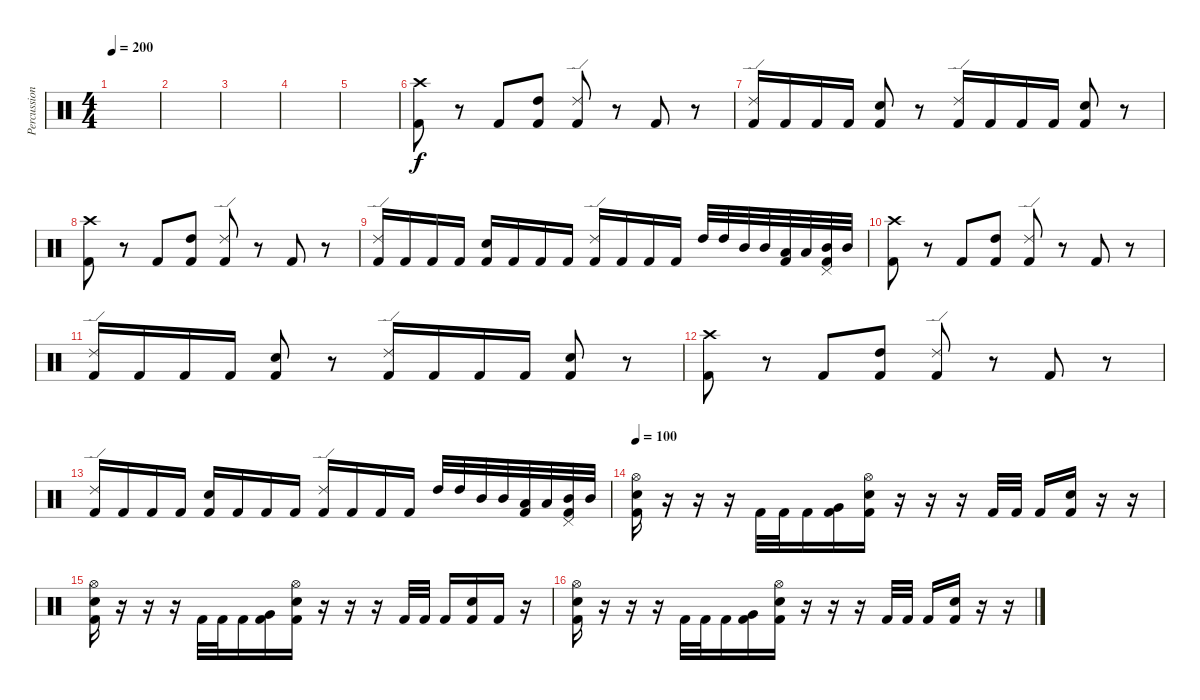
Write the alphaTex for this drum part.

\track ("Percussion" "Percussion") {instrument percussion}
\staff {score}
\articulation defaults
\ts (4 4)
\tempo 200
\clef neutral
\ks c
|
|
|
|
|
("Crash high (hit)" "Kick (hit) 2").8{dy f} r.8 "Kick (hit) 2".8 ("High Tom (hit)" "Kick (hit) 2").8 ("Ride (edge) 2" "Kick (hit) 2").8 r.8 "Kick (hit) 2".8 r.8 |
("Ride (edge) 2" "Kick (hit) 2").16 "Kick (hit) 2".16 "Kick (hit) 2".16 "Kick (hit) 2".16 ("Hand Clap (hit)" "Kick (hit) 2").8 r.8 ("Ride (edge) 2" "Kick (hit) 2").16 "Kick (hit) 2".16 "Kick (hit) 2".16 "Kick (hit) 2".16 ("Hand Clap (hit)" "Kick (hit) 2").8 r.8 |
("Crash high (hit)" "Kick (hit) 2").8 r.8 "Kick (hit) 2".8 ("High Tom (hit)" "Kick (hit) 2").8 ("Ride (edge) 2" "Kick (hit) 2").8 r.8 "Kick (hit) 2".8 r.8 |
("Ride (edge) 2" "Kick (hit) 2").16 "Kick (hit) 2".16 "Kick (hit) 2".16 "Kick (hit) 2".16 ("Electric Snare (hit)" "Kick (hit) 2").16 "Kick (hit) 2".16 "Kick (hit) 2".16 "Kick (hit) 2".16 ("Ride (edge) 2" "Kick (hit) 2").16 "Kick (hit) 2".16 "Kick (hit) 2".16 "Kick (hit) 2".16 "High Tom (hit)".32 "High Tom (hit)".32 "Mid Tom (hit)".32 "Mid Tom (hit)".32 ("Low Tom (hit)" "Kick (hit) 2").32 "Low Tom (hit)".32 ("Pedal Hi-Hat (hit)" "Mid Tom (hit)" "Kick (hit) 2").32 "Mid Tom (hit)".32 |
("Crash high (hit)" "Kick (hit) 2").8 r.8 "Kick (hit) 2".8 ("High Tom (hit)" "Kick (hit) 2").8 ("Ride (edge) 2" "Kick (hit) 2").8 r.8 "Kick (hit) 2".8 r.8 |
("Ride (edge) 2" "Kick (hit) 2").16 "Kick (hit) 2".16 "Kick (hit) 2".16 "Kick (hit) 2".16 ("Hand Clap (hit)" "Kick (hit) 2").8 r.8 ("Ride (edge) 2" "Kick (hit) 2").16 "Kick (hit) 2".16 "Kick (hit) 2".16 "Kick (hit) 2".16 ("Hand Clap (hit)" "Kick (hit) 2").8 r.8 |
("Crash high (hit)" "Kick (hit) 2").8 r.8 "Kick (hit) 2".8 ("High Tom (hit)" "Kick (hit) 2").8 ("Ride (edge) 2" "Kick (hit) 2").8 r.8 "Kick (hit) 2".8 r.8 |
("Ride (edge) 2" "Kick (hit) 2").16 "Kick (hit) 2".16 "Kick (hit) 2".16 "Kick (hit) 2".16 ("Electric Snare (hit)" "Kick (hit) 2").16 "Kick (hit) 2".16 "Kick (hit) 2".16 "Kick (hit) 2".16 ("Ride (edge) 2" "Kick (hit) 2").16 "Kick (hit) 2".16 "Kick (hit) 2".16 "Kick (hit) 2".16 "High Tom (hit)".32 "High Tom (hit)".32 "Mid Tom (hit)".32 "Mid Tom (hit)".32 ("Low Tom (hit)" "Kick (hit) 2").32 "Low Tom (hit)".32 ("Pedal Hi-Hat (hit)" "Mid Tom (hit)" "Kick (hit) 2").32 "Mid Tom (hit)".32 |
\tempo 100
("Hi-Hat (open)" "Electric Snare (hit)" "Kick (hit) 2").16 r.16 r.16 r.16 "Kick (hit) 2".32 "Kick (hit) 2".32 "Kick (hit) 2".16 ("Very Low Tom (hit)" "Kick (hit) 2").16 ("Hi-Hat (open)" "Electric Snare (hit)" "Kick (hit) 2").16 r.16 r.16 r.16 "Kick (hit) 2".32 "Kick (hit) 2".32 "Kick (hit) 2".16 ("Electric Snare (hit)" "Kick (hit) 2").16 r.16 r.16 |
("Hi-Hat (open)" "Electric Snare (hit)" "Kick (hit) 2").16 r.16 r.16 r.16 "Kick (hit) 2".32 "Kick (hit) 2".32 "Kick (hit) 2".16 ("Very Low Tom (hit)" "Kick (hit) 2").16 ("Hi-Hat (open)" "Electric Snare (hit)" "Kick (hit) 2").16 r.16 r.16 r.16 "Kick (hit) 2".32 "Kick (hit) 2".32 "Kick (hit) 2".16 ("Electric Snare (hit)" "Kick (hit) 2").16 "Kick (hit) 2".16 r.16 |
("Hi-Hat (open)" "Electric Snare (hit)" "Kick (hit) 2").16 r.16 r.16 r.16 "Kick (hit) 2".32 "Kick (hit) 2".32 "Kick (hit) 2".16 ("Very Low Tom (hit)" "Kick (hit) 2").16 ("Hi-Hat (open)" "Electric Snare (hit)" "Kick (hit) 2").16 r.16 r.16 r.16 "Kick (hit) 2".32 "Kick (hit) 2".32 "Kick (hit) 2".16 ("Electric Snare (hit)" "Kick (hit) 2").16 r.16 r.16
